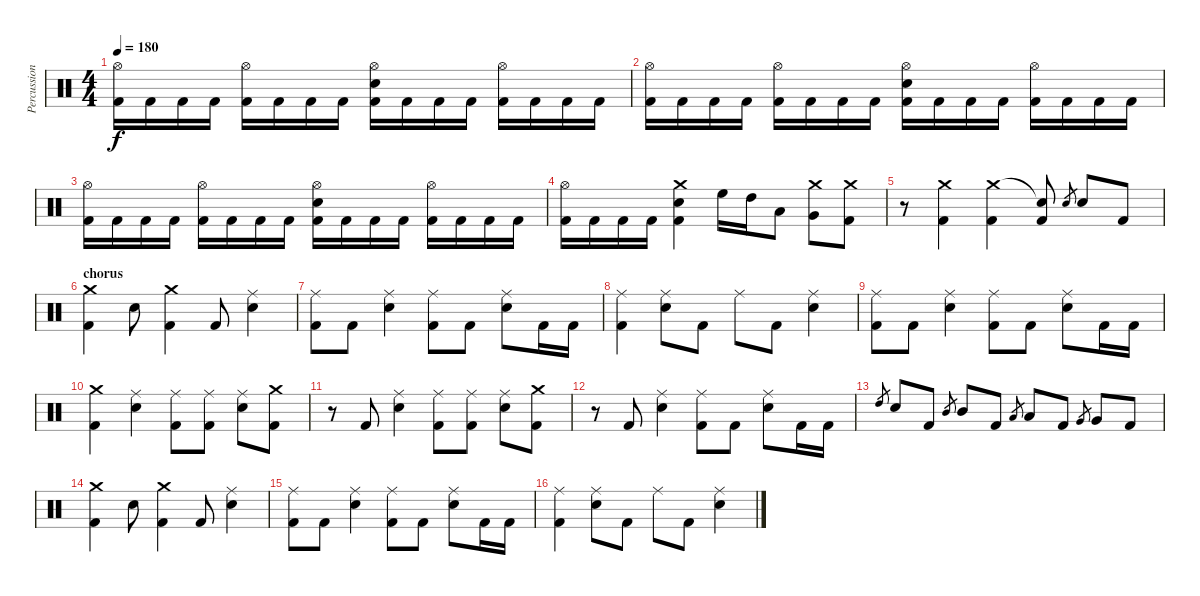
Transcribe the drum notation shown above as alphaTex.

\track ("Percussion" "Percussion") {instrument percussion}
\staff {score}
\articulation defaults
\ts (4 4)
\tempo 180
\clef neutral
\ks c
("Hi-Hat (open)" "Kick (hit) 2").16{dy f} "Kick (hit) 2".16 "Kick (hit) 2".16 "Kick (hit) 2".16 ("Hi-Hat (open)" "Kick (hit) 2").16 "Kick (hit) 2".16 "Kick (hit) 2".16 "Kick (hit) 2".16 ("Hi-Hat (open)" "Electric Snare (hit)" "Kick (hit) 2").16 "Kick (hit) 2".16 "Kick (hit) 2".16 "Kick (hit) 2".16 ("Hi-Hat (open)" "Kick (hit) 2").16 "Kick (hit) 2".16 "Kick (hit) 2".16 "Kick (hit) 2".16 |
("Hi-Hat (open)" "Kick (hit) 2").16 "Kick (hit) 2".16 "Kick (hit) 2".16 "Kick (hit) 2".16 ("Hi-Hat (open)" "Kick (hit) 2").16 "Kick (hit) 2".16 "Kick (hit) 2".16 "Kick (hit) 2".16 ("Hi-Hat (open)" "Electric Snare (hit)" "Kick (hit) 2").16 "Kick (hit) 2".16 "Kick (hit) 2".16 "Kick (hit) 2".16 ("Hi-Hat (open)" "Kick (hit) 2").16 "Kick (hit) 2".16 "Kick (hit) 2".16 "Kick (hit) 2".16 |
("Hi-Hat (open)" "Kick (hit) 2").16 "Kick (hit) 2".16 "Kick (hit) 2".16 "Kick (hit) 2".16 ("Hi-Hat (open)" "Kick (hit) 2").16 "Kick (hit) 2".16 "Kick (hit) 2".16 "Kick (hit) 2".16 ("Hi-Hat (open)" "Electric Snare (hit)" "Kick (hit) 2").16 "Kick (hit) 2".16 "Kick (hit) 2".16 "Kick (hit) 2".16 ("Hi-Hat (open)" "Kick (hit) 2").16 "Kick (hit) 2".16 "Kick (hit) 2".16 "Kick (hit) 2".16 |
("Hi-Hat (open)" "Kick (hit) 2").16 "Kick (hit) 2".16 "Kick (hit) 2".16 "Kick (hit) 2".16 ("Crash medium (hit)" "Electric Snare (hit)" "Kick (hit) 2").4 "High Floor Tom (hit)".16 "High Tom (hit)".16 "Low Tom (hit)".8 ("Crash medium (hit)" "Very Low Tom (hit)").8 ("Crash medium (hit)" "Kick (hit) 2").8 |
r.8 ("Crash medium (hit)" "Kick (hit) 2").4 ("Crash medium (hit)" "Kick (hit) 2").4 ("Snare (hit)"{t} "Kick (hit) 2").8 "Electric Snare (hit)".8{gr} "Electric Snare (hit)".8 "Kick (hit) 2".8 |
\section ("" "chorus")
("Crash medium (hit)" "Kick (hit) 2").4 "Electric Snare (hit)".8 ("Crash medium (hit)" "Kick (hit) 2").4 "Kick (hit) 2".8 ("Ride (middle)" "Electric Snare (hit)").4 |
("Ride (middle)" "Kick (hit) 2").8 "Kick (hit) 2".8 ("Ride (middle)" "Electric Snare (hit)").4 ("Ride (middle)" "Kick (hit) 2").8 "Kick (hit) 2".8 ("Ride (middle)" "Electric Snare (hit)").8 "Kick (hit) 2".16 "Kick (hit) 2".16 |
("Ride (middle)" "Kick (hit) 2").4 ("Ride (middle)" "Electric Snare (hit)").8 "Kick (hit) 2".8 "Ride (middle)".8 "Kick (hit) 2".8 ("Ride (middle)" "Electric Snare (hit)").4 |
("Ride (middle)" "Kick (hit) 2").8 "Kick (hit) 2".8 ("Ride (middle)" "Electric Snare (hit)").4 ("Ride (middle)" "Kick (hit) 2").8 "Kick (hit) 2".8 ("Ride (middle)" "Electric Snare (hit)").8 "Kick (hit) 2".16 "Kick (hit) 2".16 |
("Crash medium (hit)" "Kick (hit) 2").4 ("Ride (middle)" "Electric Snare (hit)").4 ("Ride (middle)" "Kick (hit) 2").8 ("Ride (middle)" "Kick (hit) 2").8 ("Ride (middle)" "Electric Snare (hit)").8 ("Crash medium (hit)" "Kick (hit) 2").8 |
r.8 "Kick (hit) 2".8 ("Ride (middle)" "Electric Snare (hit)").4 ("Ride (middle)" "Kick (hit) 2").8 ("Ride (middle)" "Kick (hit) 2").8 ("Ride (middle)" "Electric Snare (hit)").8 ("Crash medium (hit)" "Kick (hit) 2").8 |
r.8 "Kick (hit) 2".8 ("Ride (middle)" "Electric Snare (hit)").4 ("Ride (middle)" "Kick (hit) 2").8 "Kick (hit) 2".8 ("Ride (middle)" "Electric Snare (hit)").8 "Kick (hit) 2".16 "Kick (hit) 2".16 |
"High Tom (hit)".8{gr} "Electric Snare (hit)".8 "Kick (hit) 2".8 "Mid Tom (hit)".8{gr} "Mid Tom (hit)".8 "Kick (hit) 2".8 "Low Tom (hit)".8{gr} "Low Tom (hit)".8 "Kick (hit) 2".8 "Very Low Tom (hit)".8{gr} "Very Low Tom (hit)".8 "Kick (hit) 2".8 |
("Crash medium (hit)" "Kick (hit) 2").4 "Electric Snare (hit)".8 ("Crash medium (hit)" "Kick (hit) 2").4 "Kick (hit) 2".8 ("Ride (middle)" "Electric Snare (hit)").4 |
("Ride (middle)" "Kick (hit) 2").8 "Kick (hit) 2".8 ("Ride (middle)" "Electric Snare (hit)").4 ("Ride (middle)" "Kick (hit) 2").8 "Kick (hit) 2".8 ("Ride (middle)" "Electric Snare (hit)").8 "Kick (hit) 2".16 "Kick (hit) 2".16 |
("Ride (middle)" "Kick (hit) 2").4 ("Ride (middle)" "Electric Snare (hit)").8 "Kick (hit) 2".8 "Ride (middle)".8 "Kick (hit) 2".8 ("Ride (middle)" "Electric Snare (hit)").4
